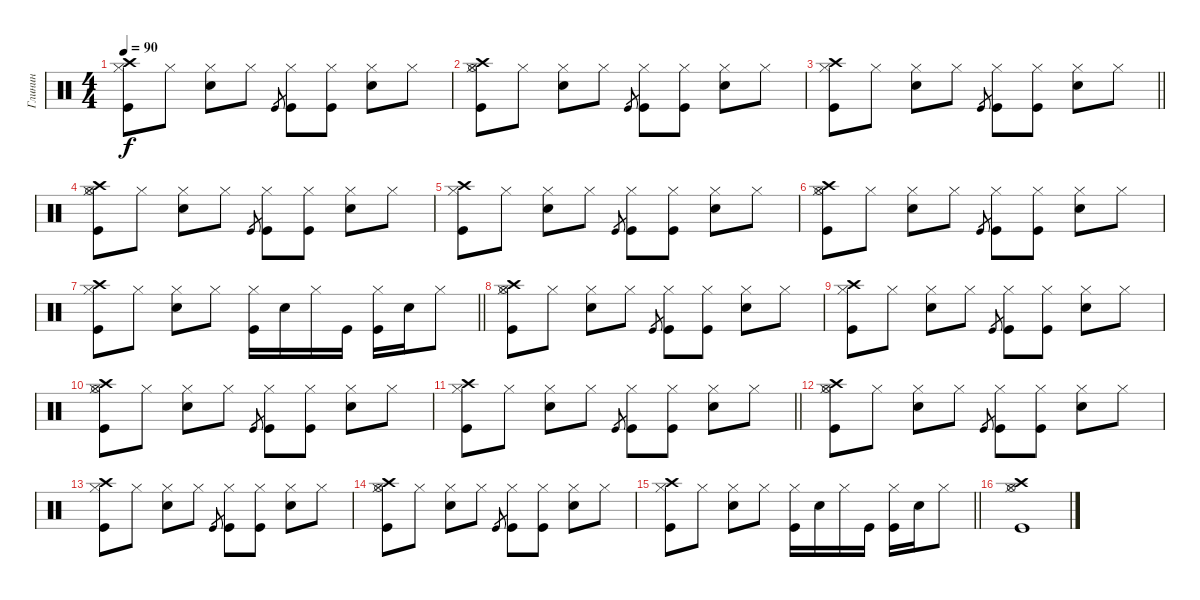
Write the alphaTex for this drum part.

\track ("Глинин" "Глинин") {instrument percussion}
\staff {score}
\articulation defaults
\ts (4 4)
\tempo 90
\clef neutral
\ks c
("Hi-Hat (closed)" "Crash high (hit)" "Kick (hit)").8{dy f} "Hi-Hat (closed)".8 ("Hi-Hat (closed)" "Snare (hit) 2").8 "Hi-Hat (closed)".8 "Kick (hit)".8{gr} ("Hi-Hat (closed)" "Kick (hit)").8 ("Hi-Hat (closed)" "Kick (hit)").8 ("Hi-Hat (closed)" "Snare (hit) 2").8 "Hi-Hat (closed)".8 |
("Hi-Hat (closed)" "Crash high (hit)" "Kick (hit)" "Hi-Hat (open)").8 "Hi-Hat (closed)".8 ("Hi-Hat (closed)" "Snare (hit) 2").8 "Hi-Hat (closed)".8 "Kick (hit)".8{gr} ("Hi-Hat (closed)" "Kick (hit)").8 ("Hi-Hat (closed)" "Kick (hit)").8 ("Hi-Hat (closed)" "Snare (hit) 2").8 "Hi-Hat (closed)".8 |
\barLineRight lightlight
("Hi-Hat (closed)" "Crash high (hit)" "Kick (hit)").8 "Hi-Hat (closed)".8 ("Hi-Hat (closed)" "Snare (hit) 2").8 "Hi-Hat (closed)".8 "Kick (hit)".8{gr} ("Hi-Hat (closed)" "Kick (hit)").8 ("Hi-Hat (closed)" "Kick (hit)").8 ("Hi-Hat (closed)" "Snare (hit) 2").8 "Hi-Hat (closed)".8 |
("Hi-Hat (closed)" "Crash high (hit)" "Kick (hit)" "Hi-Hat (open)").8 "Hi-Hat (closed)".8 ("Hi-Hat (closed)" "Snare (hit) 2").8 "Hi-Hat (closed)".8 "Kick (hit)".8{gr} ("Hi-Hat (closed)" "Kick (hit)").8 ("Hi-Hat (closed)" "Kick (hit)").8 ("Hi-Hat (closed)" "Snare (hit) 2").8 "Hi-Hat (closed)".8 |
("Hi-Hat (closed)" "Crash high (hit)" "Kick (hit)").8 "Hi-Hat (closed)".8 ("Hi-Hat (closed)" "Snare (hit) 2").8 "Hi-Hat (closed)".8 "Kick (hit)".8{gr} ("Hi-Hat (closed)" "Kick (hit)").8 ("Hi-Hat (closed)" "Kick (hit)").8 ("Hi-Hat (closed)" "Snare (hit) 2").8 "Hi-Hat (closed)".8 |
("Hi-Hat (closed)" "Crash high (hit)" "Kick (hit)" "Hi-Hat (open)").8 "Hi-Hat (closed)".8 ("Hi-Hat (closed)" "Snare (hit) 2").8 "Hi-Hat (closed)".8 "Kick (hit)".8{gr} ("Hi-Hat (closed)" "Kick (hit)").8 ("Hi-Hat (closed)" "Kick (hit)").8 ("Hi-Hat (closed)" "Snare (hit) 2").8 "Hi-Hat (closed)".8 |
\barLineRight lightlight
("Hi-Hat (closed)" "Crash high (hit)" "Kick (hit)").8 "Hi-Hat (closed)".8 ("Hi-Hat (closed)" "Snare (hit) 2").8 "Hi-Hat (closed)".8 ("Hi-Hat (closed)" "Kick (hit)").16 "Snare (hit) 2".16 "Hi-Hat (closed)".16 "Kick (hit)".16 ("Hi-Hat (closed)" "Kick (hit)").16 "Snare (hit) 2".16 "Hi-Hat (closed)".8 |
("Hi-Hat (closed)" "Crash high (hit)" "Kick (hit)" "Hi-Hat (open)").8 "Hi-Hat (closed)".8 ("Hi-Hat (closed)" "Snare (hit) 2").8 "Hi-Hat (closed)".8 "Kick (hit)".8{gr} ("Hi-Hat (closed)" "Kick (hit)").8 ("Hi-Hat (closed)" "Kick (hit)").8 ("Hi-Hat (closed)" "Snare (hit) 2").8 "Hi-Hat (closed)".8 |
("Hi-Hat (closed)" "Crash high (hit)" "Kick (hit)").8 "Hi-Hat (closed)".8 ("Hi-Hat (closed)" "Snare (hit) 2").8 "Hi-Hat (closed)".8 "Kick (hit)".8{gr} ("Hi-Hat (closed)" "Kick (hit)").8 ("Hi-Hat (closed)" "Kick (hit)").8 ("Hi-Hat (closed)" "Snare (hit) 2").8 "Hi-Hat (closed)".8 |
("Hi-Hat (closed)" "Crash high (hit)" "Kick (hit)" "Hi-Hat (open)").8 "Hi-Hat (closed)".8 ("Hi-Hat (closed)" "Snare (hit) 2").8 "Hi-Hat (closed)".8 "Kick (hit)".8{gr} ("Hi-Hat (closed)" "Kick (hit)").8 ("Hi-Hat (closed)" "Kick (hit)").8 ("Hi-Hat (closed)" "Snare (hit) 2").8 "Hi-Hat (closed)".8 |
\barLineRight lightlight
("Hi-Hat (closed)" "Crash high (hit)" "Kick (hit)").8 "Hi-Hat (closed)".8 ("Hi-Hat (closed)" "Snare (hit) 2").8 "Hi-Hat (closed)".8 "Kick (hit)".8{gr} ("Hi-Hat (closed)" "Kick (hit)").8 ("Hi-Hat (closed)" "Kick (hit)").8 ("Hi-Hat (closed)" "Snare (hit) 2").8 "Hi-Hat (closed)".8 |
("Hi-Hat (closed)" "Crash high (hit)" "Kick (hit)" "Hi-Hat (open)").8 "Hi-Hat (closed)".8 ("Hi-Hat (closed)" "Snare (hit) 2").8 "Hi-Hat (closed)".8 "Kick (hit)".8{gr} ("Hi-Hat (closed)" "Kick (hit)").8 ("Hi-Hat (closed)" "Kick (hit)").8 ("Hi-Hat (closed)" "Snare (hit) 2").8 "Hi-Hat (closed)".8 |
("Hi-Hat (closed)" "Crash high (hit)" "Kick (hit)").8 "Hi-Hat (closed)".8 ("Hi-Hat (closed)" "Snare (hit) 2").8 "Hi-Hat (closed)".8 "Kick (hit)".8{gr} ("Hi-Hat (closed)" "Kick (hit)").8 ("Hi-Hat (closed)" "Kick (hit)").8 ("Hi-Hat (closed)" "Snare (hit) 2").8 "Hi-Hat (closed)".8 |
("Hi-Hat (closed)" "Crash high (hit)" "Kick (hit)" "Hi-Hat (open)").8 "Hi-Hat (closed)".8 ("Hi-Hat (closed)" "Snare (hit) 2").8 "Hi-Hat (closed)".8 "Kick (hit)".8{gr} ("Hi-Hat (closed)" "Kick (hit)").8 ("Hi-Hat (closed)" "Kick (hit)").8 ("Hi-Hat (closed)" "Snare (hit) 2").8 "Hi-Hat (closed)".8 |
\barLineRight lightlight
("Hi-Hat (closed)" "Crash high (hit)" "Kick (hit)").8 "Hi-Hat (closed)".8 ("Hi-Hat (closed)" "Snare (hit) 2").8 "Hi-Hat (closed)".8 ("Hi-Hat (closed)" "Kick (hit)").16 "Snare (hit) 2".16 "Hi-Hat (closed)".16 "Kick (hit)".16 ("Hi-Hat (closed)" "Kick (hit)").16 "Snare (hit) 2".16 "Hi-Hat (closed)".8 |
("Hi-Hat (closed)" "Crash high (hit)" "Kick (hit)" "Hi-Hat (open)").1
